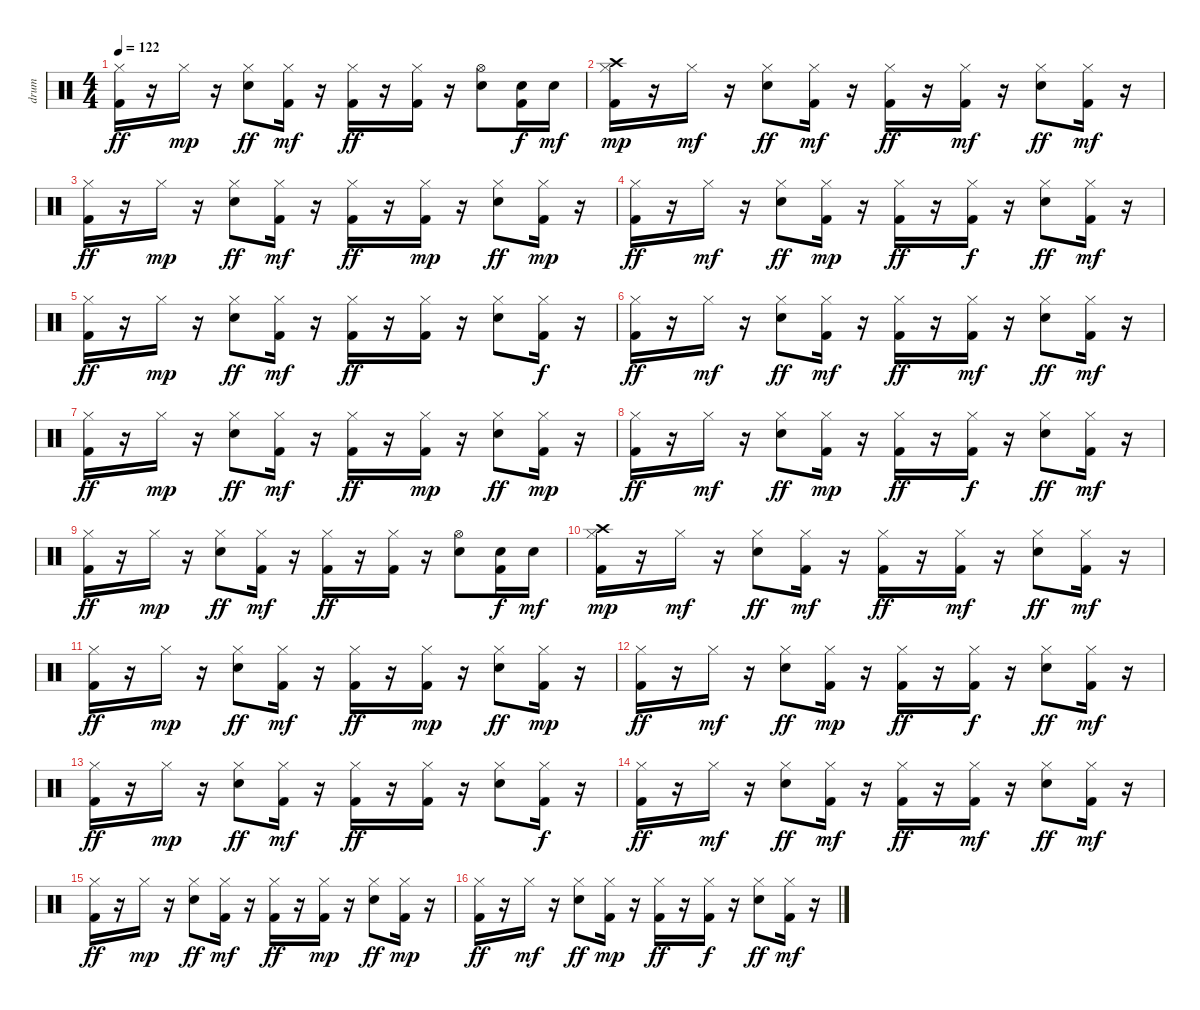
\track ("drum" "drum") {instrument percussion}
\staff {score}
\articulation defaults
\ts (4 4)
\tempo 122
\clef neutral
\ks c
("Kick (hit) 2" "Hi-Hat (closed)").16{dy ff} r.16 "Hi-Hat (closed)".16{dy mp} r.16 ("Electric Snare (hit)" "Hi-Hat (closed)").8{dy ff} ("Kick (hit) 2" "Hi-Hat (closed)").16{dy mf} r.16 ("Kick (hit) 2" "Hi-Hat (closed)").16{dy ff} r.16 ("Kick (hit) 2" "Hi-Hat (closed)").16 r.16 ("Electric Snare (hit)" "Hi-Hat (open)").8 ("Electric Snare (hit)" "Kick (hit) 2").16{dy f} "Electric Snare (hit)".16{dy mf} |
("Kick (hit) 2" "Hi-Hat (closed)" "Crash high (hit)").16{dy mp} r.16 "Hi-Hat (closed)".16{dy mf} r.16 ("Electric Snare (hit)" "Hi-Hat (closed)").8{dy ff} ("Kick (hit) 2" "Hi-Hat (closed)").16{dy mf} r.16 ("Kick (hit) 2" "Hi-Hat (closed)").16{dy ff} r.16 ("Kick (hit) 2" "Hi-Hat (closed)").16{dy mf} r.16 ("Electric Snare (hit)" "Hi-Hat (closed)").8{dy ff} ("Kick (hit) 2" "Hi-Hat (closed)").16{dy mf} r.16 |
("Kick (hit) 2" "Hi-Hat (closed)").16{dy ff} r.16 "Hi-Hat (closed)".16{dy mp} r.16 ("Electric Snare (hit)" "Hi-Hat (closed)").8{dy ff} ("Kick (hit) 2" "Hi-Hat (closed)").16{dy mf} r.16 ("Kick (hit) 2" "Hi-Hat (closed)").16{dy ff} r.16 ("Kick (hit) 2" "Hi-Hat (closed)").16{dy mp} r.16 ("Electric Snare (hit)" "Hi-Hat (closed)").8{dy ff} ("Kick (hit) 2" "Hi-Hat (closed)").16{dy mp} r.16 |
("Kick (hit) 2" "Hi-Hat (closed)").16{dy ff} r.16 "Hi-Hat (closed)".16{dy mf} r.16 ("Electric Snare (hit)" "Hi-Hat (closed)").8{dy ff} ("Kick (hit) 2" "Hi-Hat (closed)").16{dy mp} r.16 ("Kick (hit) 2" "Hi-Hat (closed)").16{dy ff} r.16 ("Kick (hit) 2" "Hi-Hat (closed)").16{dy f} r.16 ("Electric Snare (hit)" "Hi-Hat (closed)").8{dy ff} ("Kick (hit) 2" "Hi-Hat (closed)").16{dy mf} r.16 |
("Kick (hit) 2" "Hi-Hat (closed)").16{dy ff} r.16 "Hi-Hat (closed)".16{dy mp} r.16 ("Electric Snare (hit)" "Hi-Hat (closed)").8{dy ff} ("Kick (hit) 2" "Hi-Hat (closed)").16{dy mf} r.16 ("Kick (hit) 2" "Hi-Hat (closed)").16{dy ff} r.16 ("Kick (hit) 2" "Hi-Hat (closed)").16 r.16 ("Electric Snare (hit)" "Hi-Hat (closed)").8 ("Kick (hit) 2" "Hi-Hat (closed)").16{dy f} r.16 |
("Kick (hit) 2" "Hi-Hat (closed)").16{dy ff} r.16 "Hi-Hat (closed)".16{dy mf} r.16 ("Electric Snare (hit)" "Hi-Hat (closed)").8{dy ff} ("Kick (hit) 2" "Hi-Hat (closed)").16{dy mf} r.16 ("Kick (hit) 2" "Hi-Hat (closed)").16{dy ff} r.16 ("Kick (hit) 2" "Hi-Hat (closed)").16{dy mf} r.16 ("Electric Snare (hit)" "Hi-Hat (closed)").8{dy ff} ("Kick (hit) 2" "Hi-Hat (closed)").16{dy mf} r.16 |
("Kick (hit) 2" "Hi-Hat (closed)").16{dy ff} r.16 "Hi-Hat (closed)".16{dy mp} r.16 ("Electric Snare (hit)" "Hi-Hat (closed)").8{dy ff} ("Kick (hit) 2" "Hi-Hat (closed)").16{dy mf} r.16 ("Kick (hit) 2" "Hi-Hat (closed)").16{dy ff} r.16 ("Kick (hit) 2" "Hi-Hat (closed)").16{dy mp} r.16 ("Electric Snare (hit)" "Hi-Hat (closed)").8{dy ff} ("Kick (hit) 2" "Hi-Hat (closed)").16{dy mp} r.16 |
("Kick (hit) 2" "Hi-Hat (closed)").16{dy ff} r.16 "Hi-Hat (closed)".16{dy mf} r.16 ("Electric Snare (hit)" "Hi-Hat (closed)").8{dy ff} ("Kick (hit) 2" "Hi-Hat (closed)").16{dy mp} r.16 ("Kick (hit) 2" "Hi-Hat (closed)").16{dy ff} r.16 ("Kick (hit) 2" "Hi-Hat (closed)").16{dy f} r.16 ("Electric Snare (hit)" "Hi-Hat (closed)").8{dy ff} ("Kick (hit) 2" "Hi-Hat (closed)").16{dy mf} r.16 |
("Kick (hit) 2" "Hi-Hat (closed)").16{dy ff} r.16 "Hi-Hat (closed)".16{dy mp} r.16 ("Electric Snare (hit)" "Hi-Hat (closed)").8{dy ff} ("Kick (hit) 2" "Hi-Hat (closed)").16{dy mf} r.16 ("Kick (hit) 2" "Hi-Hat (closed)").16{dy ff} r.16 ("Kick (hit) 2" "Hi-Hat (closed)").16 r.16 ("Electric Snare (hit)" "Hi-Hat (open)").8 ("Electric Snare (hit)" "Kick (hit) 2").16{dy f} "Electric Snare (hit)".16{dy mf} |
("Kick (hit) 2" "Hi-Hat (closed)" "Crash high (hit)").16{dy mp} r.16 "Hi-Hat (closed)".16{dy mf} r.16 ("Electric Snare (hit)" "Hi-Hat (closed)").8{dy ff} ("Kick (hit) 2" "Hi-Hat (closed)").16{dy mf} r.16 ("Kick (hit) 2" "Hi-Hat (closed)").16{dy ff} r.16 ("Kick (hit) 2" "Hi-Hat (closed)").16{dy mf} r.16 ("Electric Snare (hit)" "Hi-Hat (closed)").8{dy ff} ("Kick (hit) 2" "Hi-Hat (closed)").16{dy mf} r.16 |
("Kick (hit) 2" "Hi-Hat (closed)").16{dy ff} r.16 "Hi-Hat (closed)".16{dy mp} r.16 ("Electric Snare (hit)" "Hi-Hat (closed)").8{dy ff} ("Kick (hit) 2" "Hi-Hat (closed)").16{dy mf} r.16 ("Kick (hit) 2" "Hi-Hat (closed)").16{dy ff} r.16 ("Kick (hit) 2" "Hi-Hat (closed)").16{dy mp} r.16 ("Electric Snare (hit)" "Hi-Hat (closed)").8{dy ff} ("Kick (hit) 2" "Hi-Hat (closed)").16{dy mp} r.16 |
("Kick (hit) 2" "Hi-Hat (closed)").16{dy ff} r.16 "Hi-Hat (closed)".16{dy mf} r.16 ("Electric Snare (hit)" "Hi-Hat (closed)").8{dy ff} ("Kick (hit) 2" "Hi-Hat (closed)").16{dy mp} r.16 ("Kick (hit) 2" "Hi-Hat (closed)").16{dy ff} r.16 ("Kick (hit) 2" "Hi-Hat (closed)").16{dy f} r.16 ("Electric Snare (hit)" "Hi-Hat (closed)").8{dy ff} ("Kick (hit) 2" "Hi-Hat (closed)").16{dy mf} r.16 |
("Kick (hit) 2" "Hi-Hat (closed)").16{dy ff} r.16 "Hi-Hat (closed)".16{dy mp} r.16 ("Electric Snare (hit)" "Hi-Hat (closed)").8{dy ff} ("Kick (hit) 2" "Hi-Hat (closed)").16{dy mf} r.16 ("Kick (hit) 2" "Hi-Hat (closed)").16{dy ff} r.16 ("Kick (hit) 2" "Hi-Hat (closed)").16 r.16 ("Electric Snare (hit)" "Hi-Hat (closed)").8 ("Kick (hit) 2" "Hi-Hat (closed)").16{dy f} r.16 |
("Kick (hit) 2" "Hi-Hat (closed)").16{dy ff} r.16 "Hi-Hat (closed)".16{dy mf} r.16 ("Electric Snare (hit)" "Hi-Hat (closed)").8{dy ff} ("Kick (hit) 2" "Hi-Hat (closed)").16{dy mf} r.16 ("Kick (hit) 2" "Hi-Hat (closed)").16{dy ff} r.16 ("Kick (hit) 2" "Hi-Hat (closed)").16{dy mf} r.16 ("Electric Snare (hit)" "Hi-Hat (closed)").8{dy ff} ("Kick (hit) 2" "Hi-Hat (closed)").16{dy mf} r.16 |
("Kick (hit) 2" "Hi-Hat (closed)").16{dy ff} r.16 "Hi-Hat (closed)".16{dy mp} r.16 ("Electric Snare (hit)" "Hi-Hat (closed)").8{dy ff} ("Kick (hit) 2" "Hi-Hat (closed)").16{dy mf} r.16 ("Kick (hit) 2" "Hi-Hat (closed)").16{dy ff} r.16 ("Kick (hit) 2" "Hi-Hat (closed)").16{dy mp} r.16 ("Electric Snare (hit)" "Hi-Hat (closed)").8{dy ff} ("Kick (hit) 2" "Hi-Hat (closed)").16{dy mp} r.16 |
("Kick (hit) 2" "Hi-Hat (closed)").16{dy ff} r.16 "Hi-Hat (closed)".16{dy mf} r.16 ("Electric Snare (hit)" "Hi-Hat (closed)").8{dy ff} ("Kick (hit) 2" "Hi-Hat (closed)").16{dy mp} r.16 ("Kick (hit) 2" "Hi-Hat (closed)").16{dy ff} r.16 ("Kick (hit) 2" "Hi-Hat (closed)").16{dy f} r.16 ("Electric Snare (hit)" "Hi-Hat (closed)").8{dy ff} ("Kick (hit) 2" "Hi-Hat (closed)").16{dy mf} r.16
